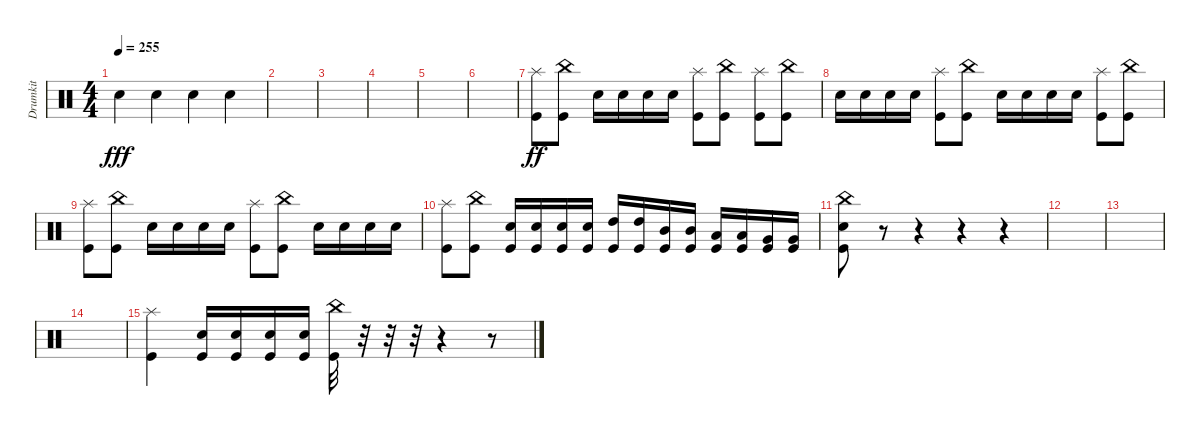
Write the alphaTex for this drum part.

\track ("Drumkit" "Drumkit") {instrument percussion}
\staff {score}
\articulation defaults
\ts (4 4)
\tempo 255
\clef neutral
\ks c "Snare (hit) 2".4{dy fff} "Snare (hit) 2".4 "Snare (hit) 2".4 "Snare (hit) 2".4
|
|
|
|
|
|
("Splash (hit)" "Kick (hit)").8{dy ff} ("China (hit)" "Kick (hit)").8 "Snare (hit) 2".16 "Snare (hit) 2".16 "Snare (hit) 2".16 "Snare (hit) 2".16 ("Splash (hit)" "Kick (hit)").8 ("China (hit)" "Kick (hit)").8 ("Splash (hit)" "Kick (hit)").8 ("China (hit)" "Kick (hit)").8 |
"Snare (hit) 2".16 "Snare (hit) 2".16 "Snare (hit) 2".16 "Snare (hit) 2".16 ("Splash (hit)" "Kick (hit)").8 ("China (hit)" "Kick (hit)").8 "Snare (hit) 2".16 "Snare (hit) 2".16 "Snare (hit) 2".16 "Snare (hit) 2".16 ("Splash (hit)" "Kick (hit)").8 ("China (hit)" "Kick (hit)").8 |
("Splash (hit)" "Kick (hit)").8 ("China (hit)" "Kick (hit)").8 "Snare (hit) 2".16 "Snare (hit) 2".16 "Snare (hit) 2".16 "Snare (hit) 2".16 ("Splash (hit)" "Kick (hit)").8 ("China (hit)" "Kick (hit)").8 "Snare (hit) 2".16 "Snare (hit) 2".16 "Snare (hit) 2".16 "Snare (hit) 2".16 |
("Splash (hit)" "Kick (hit)").8 ("China (hit)" "Kick (hit)").8 ("Snare (hit) 2" "Kick (hit)").16 ("Snare (hit) 2" "Kick (hit)").16 ("Snare (hit) 2" "Kick (hit)").16 ("Snare (hit) 2" "Kick (hit)").16 ("High Tom (hit)" "Kick (hit)").16 ("High Tom (hit)" "Kick (hit)").16 ("Mid Tom (hit)" "Kick (hit)").16 ("Mid Tom (hit)" "Kick (hit)").16 ("Low Tom (hit)" "Kick (hit)").16 ("Low Tom (hit)" "Kick (hit)").16 ("Very Low Tom (hit)" "Kick (hit)").16 ("Very Low Tom (hit)" "Kick (hit)").16 |
("China (hit)" "Kick (hit)" "Snare (hit) 2").8 r.8 r.4 r.4 r.4 |
|
|
|
("Splash (hit)" "Kick (hit)").4 ("Snare (hit) 2" "Kick (hit)").16 ("Snare (hit) 2" "Kick (hit)").16 ("Snare (hit) 2" "Kick (hit)").16 ("Snare (hit) 2" "Kick (hit)").16 ("China (hit)" "Kick (hit)").32 r.32 r.32 r.32 r.4 r.8
